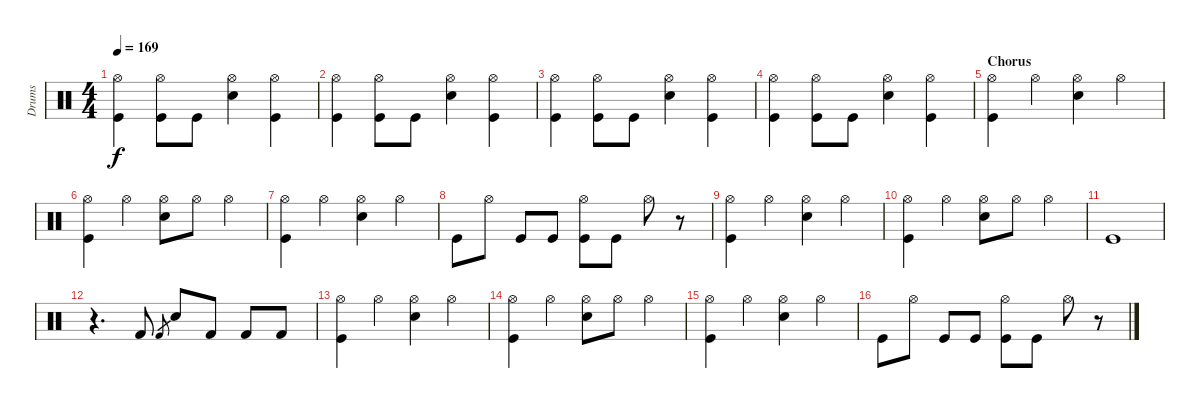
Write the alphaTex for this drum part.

\track ("Drums" "Drums") {instrument percussion}
\staff {score}
\articulation defaults
\ts (4 4)
\tempo 169
\clef neutral
\ks c
("Hi-Hat (open)" "Kick (hit)").4{dy f} ("Hi-Hat (open)" "Kick (hit)").8 "Kick (hit)".8 ("Hi-Hat (open)" "Snare (hit) 2").4 ("Hi-Hat (open)" "Kick (hit)").4 |
("Hi-Hat (open)" "Kick (hit)").4 ("Hi-Hat (open)" "Kick (hit)").8 "Kick (hit)".8 ("Hi-Hat (open)" "Snare (hit) 2").4 ("Hi-Hat (open)" "Kick (hit)").4 |
("Hi-Hat (open)" "Kick (hit)").4 ("Hi-Hat (open)" "Kick (hit)").8 "Kick (hit)".8 ("Hi-Hat (open)" "Snare (hit) 2").4 ("Hi-Hat (open)" "Kick (hit)").4 |
("Hi-Hat (open)" "Kick (hit)").4 ("Hi-Hat (open)" "Kick (hit)").8 "Kick (hit)".8 ("Hi-Hat (open)" "Snare (hit) 2").4 ("Hi-Hat (open)" "Kick (hit)").4 |
\section ("" "Chorus")
("Hi-Hat (open)" "Kick (hit)").4 "Hi-Hat (open)".4 ("Hi-Hat (open)" "Snare (hit) 2").4 "Hi-Hat (open)".4 |
("Hi-Hat (open)" "Kick (hit)").4 "Hi-Hat (open)".4 ("Hi-Hat (open)" "Snare (hit) 2").8 "Hi-Hat (open)".8 "Hi-Hat (open)".4 |
("Hi-Hat (open)" "Kick (hit)").4 "Hi-Hat (open)".4 ("Hi-Hat (open)" "Snare (hit) 2").4 "Hi-Hat (open)".4 |
"Kick (hit)".8 "Hi-Hat (open)".8 "Kick (hit)".8 "Kick (hit)".8 ("Hi-Hat (open)" "Kick (hit)").8 "Kick (hit)".8 "Hi-Hat (open)".8 r.8 |
("Hi-Hat (open)" "Kick (hit)").4 "Hi-Hat (open)".4 ("Hi-Hat (open)" "Snare (hit) 2").4 "Hi-Hat (open)".4 |
("Hi-Hat (open)" "Kick (hit)").4 "Hi-Hat (open)".4 ("Hi-Hat (open)" "Snare (hit) 2").8 "Hi-Hat (open)".8 "Hi-Hat (open)".4 |
"Kick (hit)".1 |
r.4{d} "Kick (hit) 2".8 "Kick (hit) 2".8{gr} "Snare (hit) 2".8 "Kick (hit) 2".8 "Kick (hit) 2".8 "Kick (hit) 2".8 |
("Hi-Hat (open)" "Kick (hit)").4 "Hi-Hat (open)".4 ("Hi-Hat (open)" "Snare (hit) 2").4 "Hi-Hat (open)".4 |
("Hi-Hat (open)" "Kick (hit)").4 "Hi-Hat (open)".4 ("Hi-Hat (open)" "Snare (hit) 2").8 "Hi-Hat (open)".8 "Hi-Hat (open)".4 |
("Hi-Hat (open)" "Kick (hit)").4 "Hi-Hat (open)".4 ("Hi-Hat (open)" "Snare (hit) 2").4 "Hi-Hat (open)".4 |
"Kick (hit)".8 "Hi-Hat (open)".8 "Kick (hit)".8 "Kick (hit)".8 ("Hi-Hat (open)" "Kick (hit)").8 "Kick (hit)".8 "Hi-Hat (open)".8 r.8
